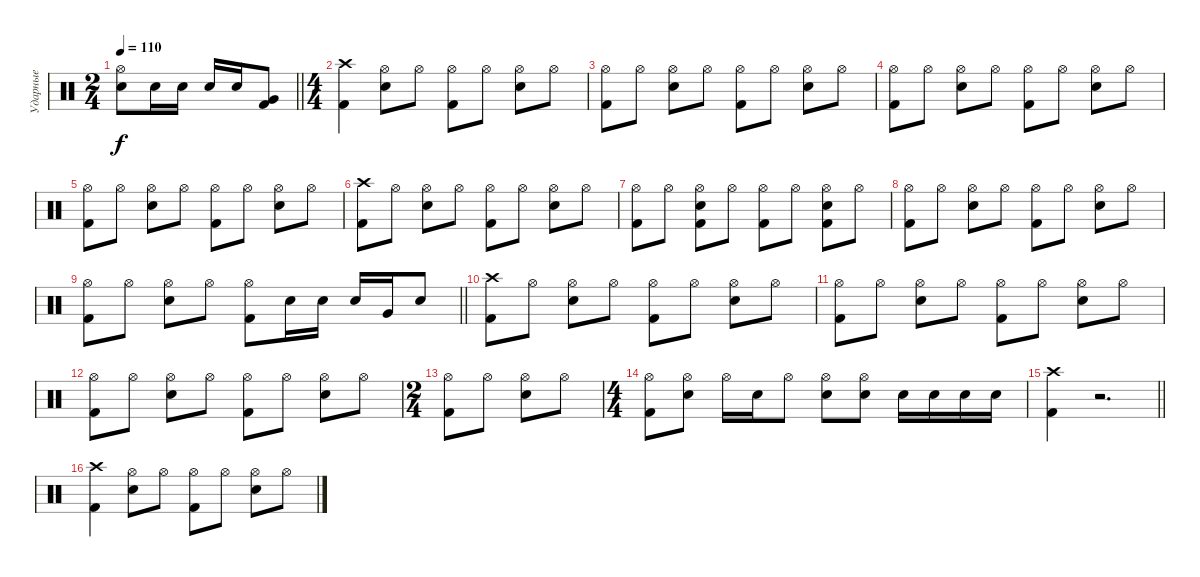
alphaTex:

\track ("Ударные" "Ударные") {instrument percussion}
\staff
\articulation defaults
\ts (2 4)
\tempo 110
\clef neutral
\barLineRight lightlight
\ks c
("Hi-Hat (open)" "Snare (hit) 2").8{dy f} "Snare (hit) 2".16 "Snare (hit) 2".16 "Snare (hit) 2".16 "Snare (hit) 2".16 ("Kick (hit) 2" "Very Low Tom (hit)").8 |
\ts (4 4)
("Kick (hit) 2" "Crash high (hit)").4 ("Snare (hit) 2" "Hi-Hat (open)").8 "Hi-Hat (open)".8 ("Kick (hit) 2" "Hi-Hat (open)").8 "Hi-Hat (open)".8 ("Snare (hit) 2" "Hi-Hat (open)").8 "Hi-Hat (open)".8 |
("Kick (hit) 2" "Hi-Hat (open)").8 "Hi-Hat (open)".8 ("Snare (hit) 2" "Hi-Hat (open)").8 "Hi-Hat (open)".8 ("Kick (hit) 2" "Hi-Hat (open)").8 "Hi-Hat (open)".8 ("Snare (hit) 2" "Hi-Hat (open)").8 "Hi-Hat (open)".8 |
("Kick (hit) 2" "Hi-Hat (open)").8 "Hi-Hat (open)".8 ("Snare (hit) 2" "Hi-Hat (open)").8 "Hi-Hat (open)".8 ("Kick (hit) 2" "Hi-Hat (open)").8 "Hi-Hat (open)".8 ("Snare (hit) 2" "Hi-Hat (open)").8 "Hi-Hat (open)".8 |
("Kick (hit) 2" "Hi-Hat (open)").8 "Hi-Hat (open)".8 ("Snare (hit) 2" "Hi-Hat (open)").8 "Hi-Hat (open)".8 ("Kick (hit) 2" "Hi-Hat (open)").8 "Hi-Hat (open)".8 ("Snare (hit) 2" "Hi-Hat (open)").8 "Hi-Hat (open)".8 |
("Kick (hit) 2" "Crash high (hit)").8 "Hi-Hat (open)".8 ("Snare (hit) 2" "Hi-Hat (open)").8 "Hi-Hat (open)".8 ("Kick (hit) 2" "Hi-Hat (open)").8 "Hi-Hat (open)".8 ("Snare (hit) 2" "Hi-Hat (open)").8 "Hi-Hat (open)".8 |
("Kick (hit) 2" "Hi-Hat (open)").8 "Hi-Hat (open)".8 ("Kick (hit) 2" "Snare (hit) 2" "Hi-Hat (open)").8 "Hi-Hat (open)".8 ("Kick (hit) 2" "Hi-Hat (open)").8 "Hi-Hat (open)".8 ("Kick (hit) 2" "Snare (hit) 2" "Hi-Hat (open)").8 "Hi-Hat (open)".8 |
("Kick (hit) 2" "Hi-Hat (open)").8 "Hi-Hat (open)".8 ("Snare (hit) 2" "Hi-Hat (open)").8 "Hi-Hat (open)".8 ("Kick (hit) 2" "Hi-Hat (open)").8 "Hi-Hat (open)".8 ("Snare (hit) 2" "Hi-Hat (open)").8 "Hi-Hat (open)".8 |
\barLineRight lightlight
("Kick (hit) 2" "Hi-Hat (open)").8 "Hi-Hat (open)".8 ("Snare (hit) 2" "Hi-Hat (open)").8 "Hi-Hat (open)".8 ("Kick (hit) 2" "Hi-Hat (open)").8 "Snare (hit) 2".16 "Snare (hit) 2".16 "Snare (hit) 2".16 "Very Low Tom (hit)".16 "Snare (hit) 2".8 |
("Kick (hit) 2" "Crash high (hit)").8 "Hi-Hat (open)".8 ("Snare (hit) 2" "Hi-Hat (open)").8 "Hi-Hat (open)".8 ("Kick (hit) 2" "Hi-Hat (open)").8 "Hi-Hat (open)".8 ("Snare (hit) 2" "Hi-Hat (open)").8 "Hi-Hat (open)".8 |
("Kick (hit) 2" "Hi-Hat (open)").8 "Hi-Hat (open)".8 ("Snare (hit) 2" "Hi-Hat (open)").8 "Hi-Hat (open)".8 ("Kick (hit) 2" "Hi-Hat (open)").8 "Hi-Hat (open)".8 ("Snare (hit) 2" "Hi-Hat (open)").8 "Hi-Hat (open)".8 |
("Kick (hit) 2" "Hi-Hat (open)").8 "Hi-Hat (open)".8 ("Snare (hit) 2" "Hi-Hat (open)").8 "Hi-Hat (open)".8 ("Kick (hit) 2" "Hi-Hat (open)").8 "Hi-Hat (open)".8 ("Snare (hit) 2" "Hi-Hat (open)").8 "Hi-Hat (open)".8 |
\ts (2 4)
("Kick (hit) 2" "Hi-Hat (open)").8 "Hi-Hat (open)".8 ("Snare (hit) 2" "Hi-Hat (open)").8 "Hi-Hat (open)".8 |
\ts (4 4)
("Kick (hit) 2" "Hi-Hat (open)").8 ("Snare (hit) 2" "Hi-Hat (open)").8 "Hi-Hat (open)".16 "Snare (hit) 2".16 "Hi-Hat (open)".8 ("Snare (hit) 2" "Hi-Hat (open)").8 ("Snare (hit) 2" "Hi-Hat (open)").8 "Snare (hit) 2".16 "Snare (hit) 2".16 "Snare (hit) 2".16 "Snare (hit) 2".16 |
\barLineRight lightlight
("Kick (hit) 2" "Crash high (hit)").4 r.2{d} |
("Kick (hit) 2" "Crash high (hit)").4 ("Snare (hit) 2" "Hi-Hat (open)").8 "Hi-Hat (open)".8 ("Kick (hit) 2" "Hi-Hat (open)").8 "Hi-Hat (open)".8 ("Snare (hit) 2" "Hi-Hat (open)").8 "Hi-Hat (open)".8
